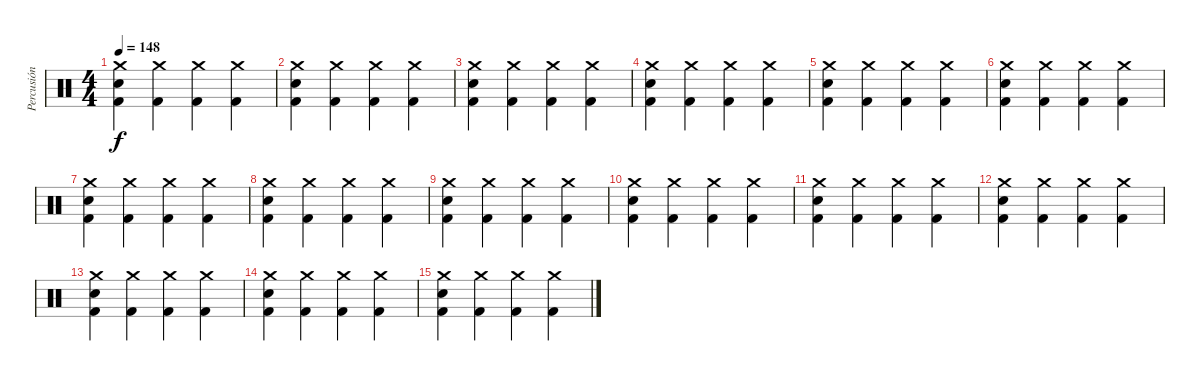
\track ("Percusión" "Percusión") {instrument percussion}
\staff {score}
\articulation defaults
\ts (4 4)
\tempo 148
\clef neutral
\ks c
("Crash medium (hit)" "Snare (hit) 2" "Kick (hit) 2").4{dy f} ("Crash medium (hit)" "Kick (hit) 2").4 ("Crash medium (hit)" "Kick (hit) 2").4 ("Crash medium (hit)" "Kick (hit) 2").4 |
("Crash medium (hit)" "Snare (hit) 2" "Kick (hit) 2").4 ("Crash medium (hit)" "Kick (hit) 2").4 ("Crash medium (hit)" "Kick (hit) 2").4 ("Crash medium (hit)" "Kick (hit) 2").4 |
("Crash medium (hit)" "Snare (hit) 2" "Kick (hit) 2").4 ("Crash medium (hit)" "Kick (hit) 2").4 ("Crash medium (hit)" "Kick (hit) 2").4 ("Crash medium (hit)" "Kick (hit) 2").4 |
("Crash medium (hit)" "Snare (hit) 2" "Kick (hit) 2").4 ("Crash medium (hit)" "Kick (hit) 2").4 ("Crash medium (hit)" "Kick (hit) 2").4 ("Crash medium (hit)" "Kick (hit) 2").4 |
("Crash medium (hit)" "Snare (hit) 2" "Kick (hit) 2").4 ("Crash medium (hit)" "Kick (hit) 2").4 ("Crash medium (hit)" "Kick (hit) 2").4 ("Crash medium (hit)" "Kick (hit) 2").4 |
("Crash medium (hit)" "Snare (hit) 2" "Kick (hit) 2").4 ("Crash medium (hit)" "Kick (hit) 2").4 ("Crash medium (hit)" "Kick (hit) 2").4 ("Crash medium (hit)" "Kick (hit) 2").4 |
("Crash medium (hit)" "Snare (hit) 2" "Kick (hit) 2").4 ("Crash medium (hit)" "Kick (hit) 2").4 ("Crash medium (hit)" "Kick (hit) 2").4 ("Crash medium (hit)" "Kick (hit) 2").4 |
("Crash medium (hit)" "Snare (hit) 2" "Kick (hit) 2").4 ("Crash medium (hit)" "Kick (hit) 2").4 ("Crash medium (hit)" "Kick (hit) 2").4 ("Crash medium (hit)" "Kick (hit) 2").4 |
("Crash medium (hit)" "Snare (hit) 2" "Kick (hit) 2").4 ("Crash medium (hit)" "Kick (hit) 2").4 ("Crash medium (hit)" "Kick (hit) 2").4 ("Crash medium (hit)" "Kick (hit) 2").4 |
("Crash medium (hit)" "Snare (hit) 2" "Kick (hit) 2").4 ("Crash medium (hit)" "Kick (hit) 2").4 ("Crash medium (hit)" "Kick (hit) 2").4 ("Crash medium (hit)" "Kick (hit) 2").4 |
("Crash medium (hit)" "Snare (hit) 2" "Kick (hit) 2").4 ("Crash medium (hit)" "Kick (hit) 2").4 ("Crash medium (hit)" "Kick (hit) 2").4 ("Crash medium (hit)" "Kick (hit) 2").4 |
("Crash medium (hit)" "Snare (hit) 2" "Kick (hit) 2").4 ("Crash medium (hit)" "Kick (hit) 2").4 ("Crash medium (hit)" "Kick (hit) 2").4 ("Crash medium (hit)" "Kick (hit) 2").4 |
("Crash medium (hit)" "Snare (hit) 2" "Kick (hit) 2").4 ("Crash medium (hit)" "Kick (hit) 2").4 ("Crash medium (hit)" "Kick (hit) 2").4 ("Crash medium (hit)" "Kick (hit) 2").4 |
("Crash medium (hit)" "Snare (hit) 2" "Kick (hit) 2").4 ("Crash medium (hit)" "Kick (hit) 2").4 ("Crash medium (hit)" "Kick (hit) 2").4 ("Crash medium (hit)" "Kick (hit) 2").4 |
("Crash medium (hit)" "Snare (hit) 2" "Kick (hit) 2").4 ("Crash medium (hit)" "Kick (hit) 2").4 ("Crash medium (hit)" "Kick (hit) 2").4 ("Crash medium (hit)" "Kick (hit) 2").4
